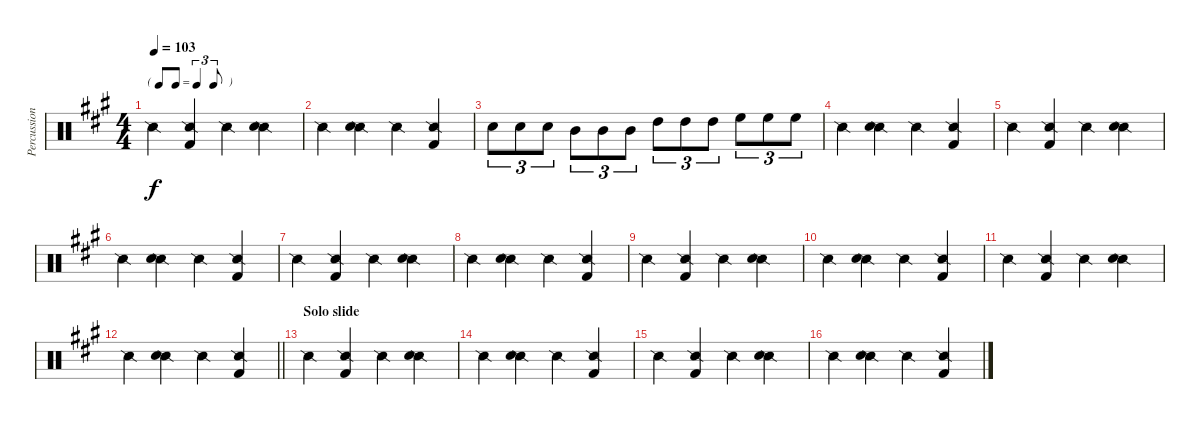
\track ("Percussions" "Percussion") {instrument percussion}
\staff {score}
\articulation defaults
\ts (4 4)
\tf triplet8th
\tempo 103
\clef neutral
\ks a "Snare (side stick) 2".4{dy f}
("Snare (side stick) 2" "Kick (hit) 2").4 "Snare (side stick) 2".4 ("Snare (side stick) 2" "Snare (hit) 2").4 |
"Snare (side stick) 2".4 ("Snare (side stick) 2" "Snare (hit) 2").4 "Snare (side stick) 2".4 ("Snare (side stick) 2" "Kick (hit) 2").4 |
"Snare (hit) 2".8{tu (3 2)} "Snare (hit) 2".8{tu (3 2)} "Snare (hit) 2".8{tu (3 2)} "Mid Tom (hit)".8{tu (3 2)} "Mid Tom (hit)".8{tu (3 2)} "Mid Tom (hit)".8{tu (3 2)} "High Tom (hit)".8{tu (3 2)} "High Tom (hit)".8{tu (3 2)} "High Tom (hit)".8{tu (3 2)} "High Floor Tom (hit)".8{tu (3 2)} "High Floor Tom (hit)".8{tu (3 2)} "High Floor Tom (hit)".8{tu (3 2)} |
"Snare (side stick) 2".4 ("Snare (side stick) 2" "Snare (hit) 2").4 "Snare (side stick) 2".4 ("Snare (side stick) 2" "Kick (hit) 2").4 |
"Snare (side stick) 2".4 ("Snare (side stick) 2" "Kick (hit) 2").4 "Snare (side stick) 2".4 ("Snare (side stick) 2" "Snare (hit) 2").4 |
"Snare (side stick) 2".4 ("Snare (side stick) 2" "Snare (hit) 2").4 "Snare (side stick) 2".4 ("Snare (side stick) 2" "Kick (hit) 2").4 |
"Snare (side stick) 2".4 ("Snare (side stick) 2" "Kick (hit) 2").4 "Snare (side stick) 2".4 ("Snare (side stick) 2" "Snare (hit) 2").4 |
"Snare (side stick) 2".4 ("Snare (side stick) 2" "Snare (hit) 2").4 "Snare (side stick) 2".4 ("Snare (side stick) 2" "Kick (hit) 2").4 |
"Snare (side stick) 2".4 ("Snare (side stick) 2" "Kick (hit) 2").4 "Snare (side stick) 2".4 ("Snare (side stick) 2" "Snare (hit) 2").4 |
"Snare (side stick) 2".4 ("Snare (side stick) 2" "Snare (hit) 2").4 "Snare (side stick) 2".4 ("Snare (side stick) 2" "Kick (hit) 2").4 |
"Snare (side stick) 2".4 ("Snare (side stick) 2" "Kick (hit) 2").4 "Snare (side stick) 2".4 ("Snare (side stick) 2" "Snare (hit) 2").4 |
\barLineRight lightlight "Snare (side stick) 2".4
("Snare (side stick) 2" "Snare (hit) 2").4 "Snare (side stick) 2".4 ("Snare (side stick) 2" "Kick (hit) 2").4 |
\section ("" "Solo slide")
"Snare (side stick) 2".4 ("Snare (side stick) 2" "Kick (hit) 2").4 "Snare (side stick) 2".4 ("Snare (side stick) 2" "Snare (hit) 2").4 |
"Snare (side stick) 2".4 ("Snare (side stick) 2" "Snare (hit) 2").4 "Snare (side stick) 2".4 ("Snare (side stick) 2" "Kick (hit) 2").4 |
"Snare (side stick) 2".4 ("Snare (side stick) 2" "Kick (hit) 2").4 "Snare (side stick) 2".4 ("Snare (side stick) 2" "Snare (hit) 2").4 |
"Snare (side stick) 2".4 ("Snare (side stick) 2" "Snare (hit) 2").4 "Snare (side stick) 2".4 ("Snare (side stick) 2" "Kick (hit) 2").4
